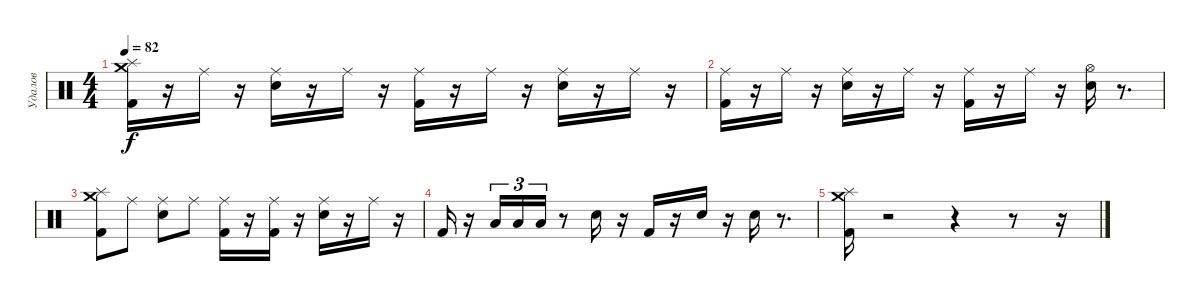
\track ("Удалов" "Удалов") {instrument percussion}
\staff {score}
\articulation defaults
\ts (4 4)
\tempo 82
\clef neutral
\ks c
("Crash medium (hit)" "Splash (hit)" "Kick (hit) 2").16{dy f} r.16 "Ride (middle)".16 r.16 ("Ride (middle)" "Snare (hit) 2").16 r.16 "Ride (middle)".16 r.16 ("Ride (middle)" "Kick (hit) 2").16 r.16 "Ride (middle)".16 r.16 ("Ride (middle)" "Snare (hit) 2").16 r.16 "Ride (middle)".16 r.16 |
("Ride (middle)" "Kick (hit) 2").16 r.16 "Ride (middle)".16 r.16 ("Ride (middle)" "Snare (hit) 2").16 r.16 "Ride (middle)".16 r.16 ("Ride (middle)" "Kick (hit) 2").16 r.16 "Ride (middle)".16 r.16 ("Hi-Hat (open)" "Snare (hit) 2").16 r.8{d} |
("Crash medium (hit)" "Splash (hit)" "Kick (hit) 2").8 "Ride (middle)".8 ("Ride (middle)" "Snare (hit) 2").8 "Ride (middle)".8 ("Ride (middle)" "Kick (hit) 2").16 r.16 ("Ride (middle)" "Kick (hit) 2").16 r.16 ("Ride (middle)" "Snare (hit) 2").16 r.16 "Ride (middle)".16 r.16 |
"Kick (hit) 2".16 r.16 "Low Tom (hit)".16{tu (3 2)} "Low Tom (hit)".16{tu (3 2)} "Low Tom (hit)".16{tu (3 2)} r.8 "Electric Snare (hit)".16 r.16 "Kick (hit) 2".16 r.16 "Snare (hit) 2".16 r.16 "Snare (hit) 2".16 r.8{d} |
("Crash medium (hit)" "Splash (hit)" "Kick (hit) 2").16 r.2 r.4 r.8 r.16
